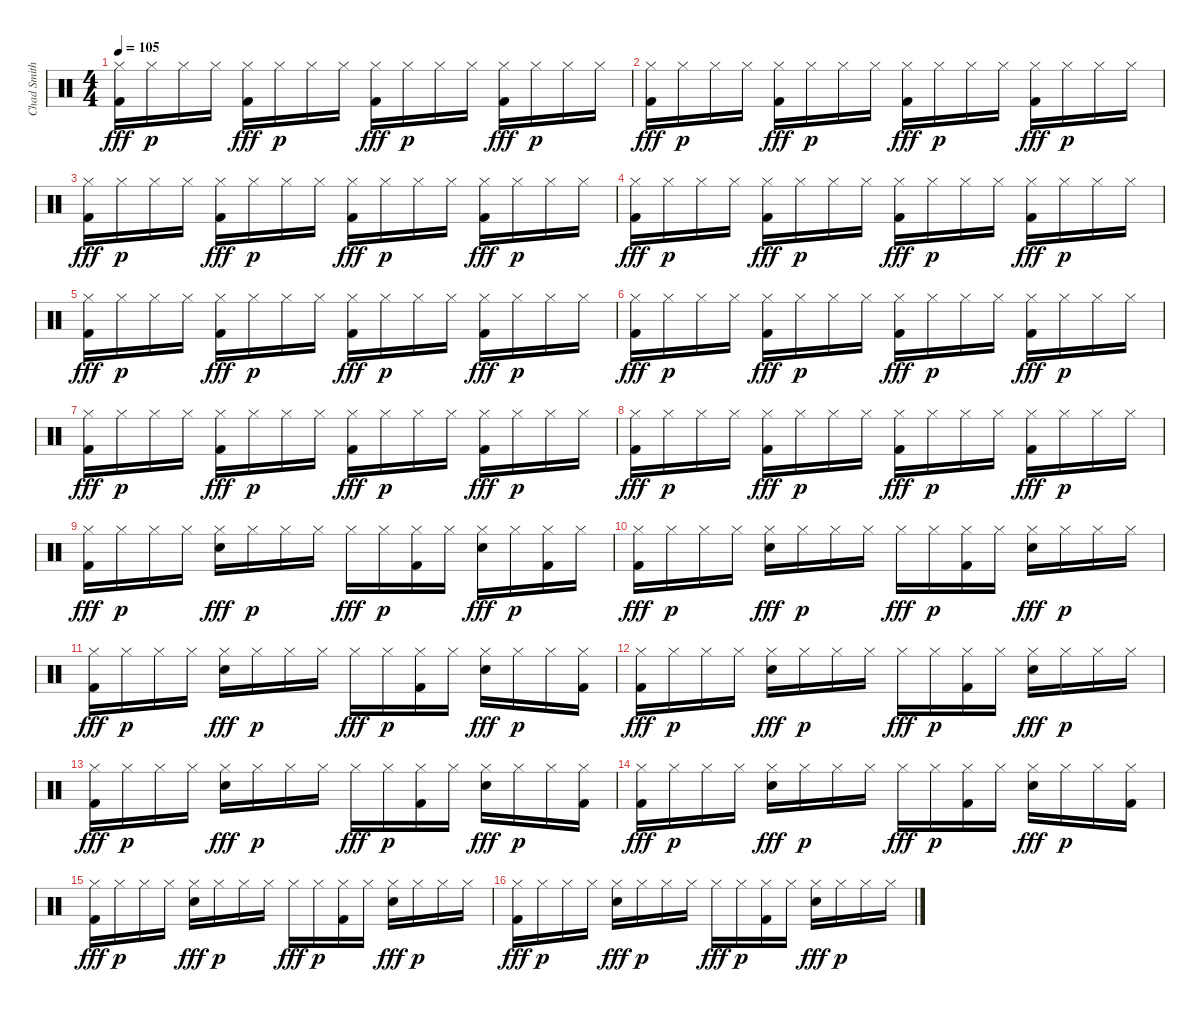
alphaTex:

\track ("Chad Smith" "Chad Smith") {instrument percussion}
\staff {score}
\articulation defaults
\ts (4 4)
\tempo 105
\clef neutral
\ks c
("Hi-Hat (closed)" "Kick (hit) 2").16{dy fff} "Hi-Hat (closed)".16{dy p} "Hi-Hat (closed)".16 "Hi-Hat (closed)".16 ("Hi-Hat (closed)" "Kick (hit) 2").16{dy fff} "Hi-Hat (closed)".16{dy p} "Hi-Hat (closed)".16 "Hi-Hat (closed)".16 ("Hi-Hat (closed)" "Kick (hit) 2").16{dy fff} "Hi-Hat (closed)".16{dy p} "Hi-Hat (closed)".16 "Hi-Hat (closed)".16 ("Hi-Hat (closed)" "Kick (hit) 2").16{dy fff} "Hi-Hat (closed)".16{dy p} "Hi-Hat (closed)".16 "Hi-Hat (closed)".16 |
("Hi-Hat (closed)" "Kick (hit) 2").16{dy fff} "Hi-Hat (closed)".16{dy p} "Hi-Hat (closed)".16 "Hi-Hat (closed)".16 ("Hi-Hat (closed)" "Kick (hit) 2").16{dy fff} "Hi-Hat (closed)".16{dy p} "Hi-Hat (closed)".16 "Hi-Hat (closed)".16 ("Hi-Hat (closed)" "Kick (hit) 2").16{dy fff} "Hi-Hat (closed)".16{dy p} "Hi-Hat (closed)".16 "Hi-Hat (closed)".16 ("Hi-Hat (closed)" "Kick (hit) 2").16{dy fff} "Hi-Hat (closed)".16{dy p} "Hi-Hat (closed)".16 "Hi-Hat (closed)".16 |
("Hi-Hat (closed)" "Kick (hit) 2").16{dy fff} "Hi-Hat (closed)".16{dy p} "Hi-Hat (closed)".16 "Hi-Hat (closed)".16 ("Hi-Hat (closed)" "Kick (hit) 2").16{dy fff} "Hi-Hat (closed)".16{dy p} "Hi-Hat (closed)".16 "Hi-Hat (closed)".16 ("Hi-Hat (closed)" "Kick (hit) 2").16{dy fff} "Hi-Hat (closed)".16{dy p} "Hi-Hat (closed)".16 "Hi-Hat (closed)".16 ("Hi-Hat (closed)" "Kick (hit) 2").16{dy fff} "Hi-Hat (closed)".16{dy p} "Hi-Hat (closed)".16 "Hi-Hat (closed)".16 |
("Hi-Hat (closed)" "Kick (hit) 2").16{dy fff} "Hi-Hat (closed)".16{dy p} "Hi-Hat (closed)".16 "Hi-Hat (closed)".16 ("Hi-Hat (closed)" "Kick (hit) 2").16{dy fff} "Hi-Hat (closed)".16{dy p} "Hi-Hat (closed)".16 "Hi-Hat (closed)".16 ("Hi-Hat (closed)" "Kick (hit) 2").16{dy fff} "Hi-Hat (closed)".16{dy p} "Hi-Hat (closed)".16 "Hi-Hat (closed)".16 ("Hi-Hat (closed)" "Kick (hit) 2").16{dy fff} "Hi-Hat (closed)".16{dy p} "Hi-Hat (closed)".16 "Hi-Hat (closed)".16 |
("Hi-Hat (closed)" "Kick (hit) 2").16{dy fff} "Hi-Hat (closed)".16{dy p} "Hi-Hat (closed)".16 "Hi-Hat (closed)".16 ("Hi-Hat (closed)" "Kick (hit) 2").16{dy fff} "Hi-Hat (closed)".16{dy p} "Hi-Hat (closed)".16 "Hi-Hat (closed)".16 ("Hi-Hat (closed)" "Kick (hit) 2").16{dy fff} "Hi-Hat (closed)".16{dy p} "Hi-Hat (closed)".16 "Hi-Hat (closed)".16 ("Hi-Hat (closed)" "Kick (hit) 2").16{dy fff} "Hi-Hat (closed)".16{dy p} "Hi-Hat (closed)".16 "Hi-Hat (closed)".16 |
("Hi-Hat (closed)" "Kick (hit) 2").16{dy fff} "Hi-Hat (closed)".16{dy p} "Hi-Hat (closed)".16 "Hi-Hat (closed)".16 ("Hi-Hat (closed)" "Kick (hit) 2").16{dy fff} "Hi-Hat (closed)".16{dy p} "Hi-Hat (closed)".16 "Hi-Hat (closed)".16 ("Hi-Hat (closed)" "Kick (hit) 2").16{dy fff} "Hi-Hat (closed)".16{dy p} "Hi-Hat (closed)".16 "Hi-Hat (closed)".16 ("Hi-Hat (closed)" "Kick (hit) 2").16{dy fff} "Hi-Hat (closed)".16{dy p} "Hi-Hat (closed)".16 "Hi-Hat (closed)".16 |
("Hi-Hat (closed)" "Kick (hit) 2").16{dy fff} "Hi-Hat (closed)".16{dy p} "Hi-Hat (closed)".16 "Hi-Hat (closed)".16 ("Hi-Hat (closed)" "Kick (hit) 2").16{dy fff} "Hi-Hat (closed)".16{dy p} "Hi-Hat (closed)".16 "Hi-Hat (closed)".16 ("Hi-Hat (closed)" "Kick (hit) 2").16{dy fff} "Hi-Hat (closed)".16{dy p} "Hi-Hat (closed)".16 "Hi-Hat (closed)".16 ("Hi-Hat (closed)" "Kick (hit) 2").16{dy fff} "Hi-Hat (closed)".16{dy p} "Hi-Hat (closed)".16 "Hi-Hat (closed)".16 |
("Hi-Hat (closed)" "Kick (hit) 2").16{dy fff} "Hi-Hat (closed)".16{dy p} "Hi-Hat (closed)".16 "Hi-Hat (closed)".16 ("Hi-Hat (closed)" "Kick (hit) 2").16{dy fff} "Hi-Hat (closed)".16{dy p} "Hi-Hat (closed)".16 "Hi-Hat (closed)".16 ("Hi-Hat (closed)" "Kick (hit) 2").16{dy fff} "Hi-Hat (closed)".16{dy p} "Hi-Hat (closed)".16 "Hi-Hat (closed)".16 ("Hi-Hat (closed)" "Kick (hit) 2").16{dy fff} "Hi-Hat (closed)".16{dy p} "Hi-Hat (closed)".16 "Hi-Hat (closed)".16 |
("Hi-Hat (closed)" "Kick (hit) 2").16{dy fff} "Hi-Hat (closed)".16{dy p} "Hi-Hat (closed)".16 "Hi-Hat (closed)".16 ("Hi-Hat (closed)" "Electric Snare (hit)").16{dy fff} "Hi-Hat (closed)".16{dy p} "Hi-Hat (closed)".16 "Hi-Hat (closed)".16 "Hi-Hat (closed)".16{dy fff} "Hi-Hat (closed)".16{dy p} ("Hi-Hat (closed)" "Kick (hit) 2").16 "Hi-Hat (closed)".16 ("Hi-Hat (closed)" "Electric Snare (hit)").16{dy fff} "Hi-Hat (closed)".16{dy p} ("Hi-Hat (closed)" "Kick (hit) 2").16 "Hi-Hat (closed)".16 |
("Hi-Hat (closed)" "Kick (hit) 2").16{dy fff} "Hi-Hat (closed)".16{dy p} "Hi-Hat (closed)".16 "Hi-Hat (closed)".16 ("Hi-Hat (closed)" "Electric Snare (hit)").16{dy fff} "Hi-Hat (closed)".16{dy p} "Hi-Hat (closed)".16 "Hi-Hat (closed)".16 "Hi-Hat (closed)".16{dy fff} "Hi-Hat (closed)".16{dy p} ("Hi-Hat (closed)" "Kick (hit) 2").16 "Hi-Hat (closed)".16 ("Hi-Hat (closed)" "Electric Snare (hit)").16{dy fff} "Hi-Hat (closed)".16{dy p} "Hi-Hat (closed)".16 "Hi-Hat (closed)".16 |
("Hi-Hat (closed)" "Kick (hit) 2").16{dy fff} "Hi-Hat (closed)".16{dy p} "Hi-Hat (closed)".16 "Hi-Hat (closed)".16 ("Hi-Hat (closed)" "Electric Snare (hit)").16{dy fff} "Hi-Hat (closed)".16{dy p} "Hi-Hat (closed)".16 "Hi-Hat (closed)".16 "Hi-Hat (closed)".16{dy fff} "Hi-Hat (closed)".16{dy p} ("Hi-Hat (closed)" "Kick (hit) 2").16 "Hi-Hat (closed)".16 ("Hi-Hat (closed)" "Electric Snare (hit)").16{dy fff} "Hi-Hat (closed)".16{dy p} "Hi-Hat (closed)".16 ("Hi-Hat (closed)" "Kick (hit) 2").16 |
("Hi-Hat (closed)" "Kick (hit) 2").16{dy fff} "Hi-Hat (closed)".16{dy p} "Hi-Hat (closed)".16 "Hi-Hat (closed)".16 ("Hi-Hat (closed)" "Electric Snare (hit)").16{dy fff} "Hi-Hat (closed)".16{dy p} "Hi-Hat (closed)".16 "Hi-Hat (closed)".16 "Hi-Hat (closed)".16{dy fff} "Hi-Hat (closed)".16{dy p} ("Hi-Hat (closed)" "Kick (hit) 2").16 "Hi-Hat (closed)".16 ("Hi-Hat (closed)" "Electric Snare (hit)").16{dy fff} "Hi-Hat (closed)".16{dy p} "Hi-Hat (closed)".16 "Hi-Hat (closed)".16 |
("Hi-Hat (closed)" "Kick (hit) 2").16{dy fff} "Hi-Hat (closed)".16{dy p} "Hi-Hat (closed)".16 "Hi-Hat (closed)".16 ("Hi-Hat (closed)" "Electric Snare (hit)").16{dy fff} "Hi-Hat (closed)".16{dy p} "Hi-Hat (closed)".16 "Hi-Hat (closed)".16 "Hi-Hat (closed)".16{dy fff} "Hi-Hat (closed)".16{dy p} ("Hi-Hat (closed)" "Kick (hit) 2").16 "Hi-Hat (closed)".16 ("Hi-Hat (closed)" "Electric Snare (hit)").16{dy fff} "Hi-Hat (closed)".16{dy p} "Hi-Hat (closed)".16 ("Hi-Hat (closed)" "Kick (hit) 2").16 |
("Hi-Hat (closed)" "Kick (hit) 2").16{dy fff} "Hi-Hat (closed)".16{dy p} "Hi-Hat (closed)".16 "Hi-Hat (closed)".16 ("Hi-Hat (closed)" "Electric Snare (hit)").16{dy fff} "Hi-Hat (closed)".16{dy p} "Hi-Hat (closed)".16 "Hi-Hat (closed)".16 "Hi-Hat (closed)".16{dy fff} "Hi-Hat (closed)".16{dy p} ("Hi-Hat (closed)" "Kick (hit) 2").16 "Hi-Hat (closed)".16 ("Hi-Hat (closed)" "Electric Snare (hit)").16{dy fff} "Hi-Hat (closed)".16{dy p} "Hi-Hat (closed)".16 ("Hi-Hat (closed)" "Kick (hit) 2").16 |
("Hi-Hat (closed)" "Kick (hit) 2").16{dy fff} "Hi-Hat (closed)".16{dy p} "Hi-Hat (closed)".16 "Hi-Hat (closed)".16 ("Hi-Hat (closed)" "Electric Snare (hit)").16{dy fff} "Hi-Hat (closed)".16{dy p} "Hi-Hat (closed)".16 "Hi-Hat (closed)".16 "Hi-Hat (closed)".16{dy fff} "Hi-Hat (closed)".16{dy p} ("Hi-Hat (closed)" "Kick (hit) 2").16 "Hi-Hat (closed)".16 ("Hi-Hat (closed)" "Electric Snare (hit)").16{dy fff} "Hi-Hat (closed)".16{dy p} "Hi-Hat (closed)".16 "Hi-Hat (closed)".16 |
("Hi-Hat (closed)" "Kick (hit) 2").16{dy fff} "Hi-Hat (closed)".16{dy p} "Hi-Hat (closed)".16 "Hi-Hat (closed)".16 ("Hi-Hat (closed)" "Electric Snare (hit)").16{dy fff} "Hi-Hat (closed)".16{dy p} "Hi-Hat (closed)".16 "Hi-Hat (closed)".16 "Hi-Hat (closed)".16{dy fff} "Hi-Hat (closed)".16{dy p} ("Hi-Hat (closed)" "Kick (hit) 2").16 "Hi-Hat (closed)".16 ("Hi-Hat (closed)" "Electric Snare (hit)").16{dy fff} "Hi-Hat (closed)".16{dy p} "Hi-Hat (closed)".16 "Hi-Hat (closed)".16
